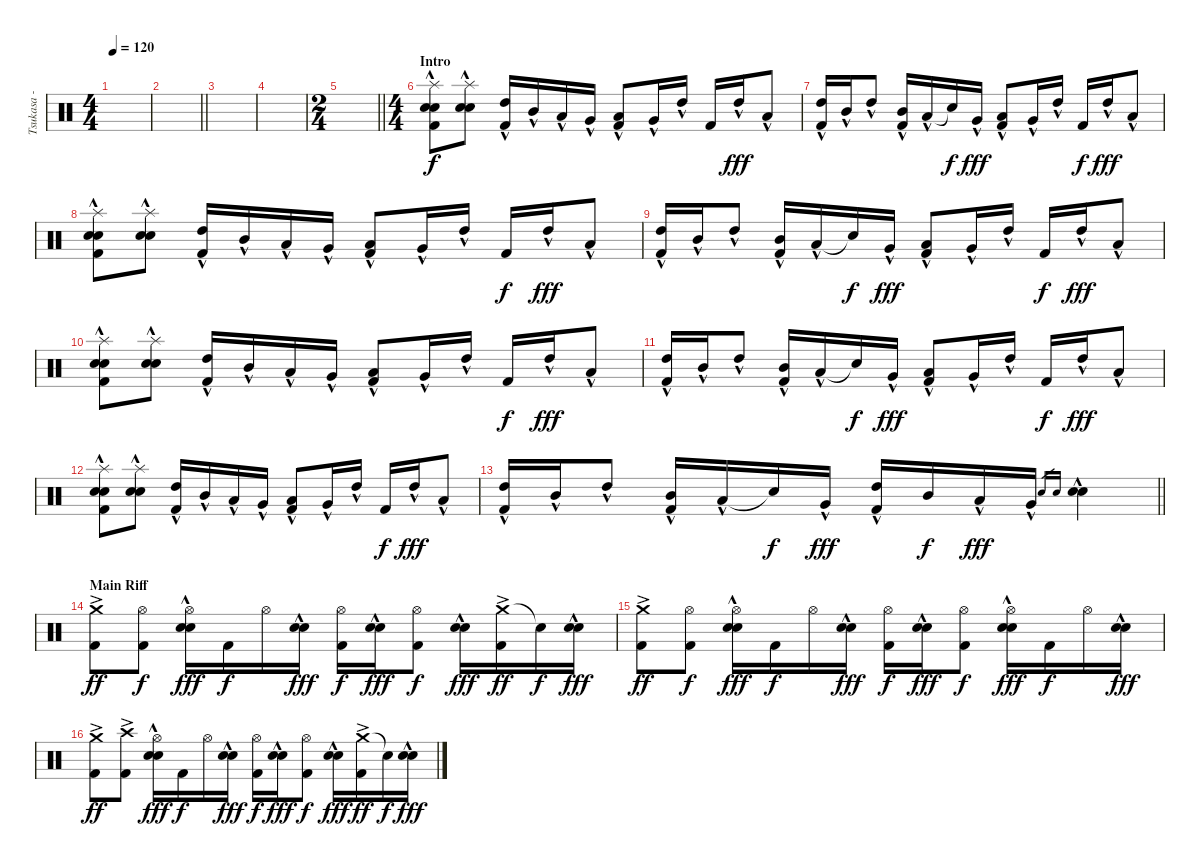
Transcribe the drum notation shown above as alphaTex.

\track ("Tsukasa - Drums" "Tsukasa - ") {instrument percussion}
\staff {score}
\articulation defaults
\ts (4 4)
\tempo 120
\clef neutral
\ks c
|
\barLineRight lightlight
|
\section ("" "")
|
|
\ts (2 4)
\barLineRight lightlight
|
\ts (4 4)
\section ("" "Intro")
("Splash (hit)"{hac} "Electric Snare (hit)"{hac} "Snare (hit) 2"{hac} "Kick (hit) 2").8 ("Splash (hit)"{hac} "Electric Snare (hit)" "Snare (hit) 2").8 ("High Tom (hit)"{hac} "Kick (hit) 2").16 "Mid Tom (hit)"{hac}.16 "Low Tom (hit)"{hac}.16 "Very Low Tom (hit)"{hac}.16 ("Low Tom (hit)"{hac} "Kick (hit) 2").8 "Very Low Tom (hit)"{hac}.16 "High Tom (hit)"{hac}.16 "Kick (hit) 2".16{dy f} "High Tom (hit)"{hac}.16{dy fff} "Low Tom (hit)"{hac}.8 |
("High Tom (hit)"{hac} "Kick (hit) 2").16 "Mid Tom (hit)"{hac}.16 "High Tom (hit)"{hac}.8 ("Mid Tom (hit)"{hac} "Kick (hit) 2").16 "Low Tom (hit)"{hac}.16 "Snare (hit)"{t}.16{dy f} "Very Low Tom (hit)"{hac}.16{dy fff} ("Low Tom (hit)"{hac} "Kick (hit) 2").8 "Very Low Tom (hit)"{hac}.16 "High Tom (hit)"{hac}.16 "Kick (hit) 2".16{dy f} "High Tom (hit)"{hac}.16{dy fff} "Low Tom (hit)"{hac}.8 |
("Splash (hit)"{hac} "Electric Snare (hit)"{hac} "Snare (hit) 2"{hac} "Kick (hit) 2").8 ("Splash (hit)"{hac} "Electric Snare (hit)" "Snare (hit) 2").8 ("High Tom (hit)"{hac} "Kick (hit) 2").16 "Mid Tom (hit)"{hac}.16 "Low Tom (hit)"{hac}.16 "Very Low Tom (hit)"{hac}.16 ("Low Tom (hit)"{hac} "Kick (hit) 2").8 "Very Low Tom (hit)"{hac}.16 "High Tom (hit)"{hac}.16 "Kick (hit) 2".16{dy f} "High Tom (hit)"{hac}.16{dy fff} "Low Tom (hit)"{hac}.8 |
("High Tom (hit)"{hac} "Kick (hit) 2").16 "Mid Tom (hit)"{hac}.16 "High Tom (hit)"{hac}.8 ("Mid Tom (hit)"{hac} "Kick (hit) 2").16 "Low Tom (hit)"{hac}.16 "Snare (hit)"{t}.16{dy f} "Very Low Tom (hit)"{hac}.16{dy fff} ("Low Tom (hit)"{hac} "Kick (hit) 2").8 "Very Low Tom (hit)"{hac}.16 "High Tom (hit)"{hac}.16 "Kick (hit) 2".16{dy f} "High Tom (hit)"{hac}.16{dy fff} "Low Tom (hit)"{hac}.8 |
("Splash (hit)"{hac} "Electric Snare (hit)"{hac} "Snare (hit) 2"{hac} "Kick (hit) 2").8 ("Splash (hit)"{hac} "Electric Snare (hit)" "Snare (hit) 2").8 ("High Tom (hit)"{hac} "Kick (hit) 2").16 "Mid Tom (hit)"{hac}.16 "Low Tom (hit)"{hac}.16 "Very Low Tom (hit)"{hac}.16 ("Low Tom (hit)"{hac} "Kick (hit) 2").8 "Very Low Tom (hit)"{hac}.16 "High Tom (hit)"{hac}.16 "Kick (hit) 2".16{dy f} "High Tom (hit)"{hac}.16{dy fff} "Low Tom (hit)"{hac}.8 |
("High Tom (hit)"{hac} "Kick (hit) 2").16 "Mid Tom (hit)"{hac}.16 "High Tom (hit)"{hac}.8 ("Mid Tom (hit)"{hac} "Kick (hit) 2").16 "Low Tom (hit)"{hac}.16 "Snare (hit)"{t}.16{dy f} "Very Low Tom (hit)"{hac}.16{dy fff} ("Low Tom (hit)"{hac} "Kick (hit) 2").8 "Very Low Tom (hit)"{hac}.16 "High Tom (hit)"{hac}.16 "Kick (hit) 2".16{dy f} "High Tom (hit)"{hac}.16{dy fff} "Low Tom (hit)"{hac}.8 |
("Splash (hit)"{hac} "Electric Snare (hit)"{hac} "Snare (hit) 2"{hac} "Kick (hit) 2").8 ("Splash (hit)"{hac} "Electric Snare (hit)" "Snare (hit) 2").8 ("High Tom (hit)"{hac} "Kick (hit) 2").16 "Mid Tom (hit)"{hac}.16 "Low Tom (hit)"{hac}.16 "Very Low Tom (hit)"{hac}.16 ("Low Tom (hit)"{hac} "Kick (hit) 2").8 "Very Low Tom (hit)"{hac}.16 "High Tom (hit)"{hac}.16 "Kick (hit) 2".16{dy f} "High Tom (hit)"{hac}.16{dy fff} "Low Tom (hit)"{hac}.8 |
\barLineRight lightlight
("High Tom (hit)"{hac} "Kick (hit) 2").16 "Mid Tom (hit)"{hac}.16 "High Tom (hit)"{hac}.8 ("Mid Tom (hit)"{hac} "Kick (hit) 2").16 "Low Tom (hit)"{hac}.16 "Snare (hit)"{t}.16{dy f} "Very Low Tom (hit)"{hac}.16{dy fff} ("High Tom (hit)"{hac} "Kick (hit) 2").16 "Mid Tom (hit)".16{dy f} "Low Tom (hit)"{hac}.16{dy fff} "Very Low Tom (hit)"{hac}.16 "Electric Snare (hit)".16{gr} "Snare (hit) 2".16{gr} ("Electric Snare (hit)"{hac} "Snare (hit) 2"{hac}).4 |
\section ("" "Main Riff")
("Crash medium (hit)"{ac} "Kick (hit) 2").8{dy ff} ("Hi-Hat (open)" "Kick (hit) 2").8{dy f} ("Hi-Hat (open)" "Electric Snare (hit)"{hac} "Snare (hit) 2"{hac}).16{dy fff} "Kick (hit) 2".16{dy f} "Hi-Hat (open)".16 ("Electric Snare (hit)"{hac} "Snare (hit) 2"{hac}).16{dy fff} ("Hi-Hat (open)" "Kick (hit) 2").16{dy f} ("Electric Snare (hit)"{hac} "Snare (hit) 2"{hac}).16{dy fff} ("Hi-Hat (open)" "Kick (hit) 2").8{dy f} ("Electric Snare (hit)"{hac} "Snare (hit) 2"{hac}).16{dy fff} ("Crash medium (hit)"{ac} "Kick (hit) 2").16{dy ff} "Snare (hit)"{t}.16{dy f} ("Electric Snare (hit)"{hac} "Snare (hit) 2"{hac}).16{dy fff} |
("Crash medium (hit)"{ac} "Kick (hit) 2").8{dy ff} ("Hi-Hat (open)" "Kick (hit) 2").8{dy f} ("Hi-Hat (open)" "Electric Snare (hit)"{hac} "Snare (hit) 2"{hac}).16{dy fff} "Kick (hit) 2".16{dy f} "Hi-Hat (open)".16 ("Electric Snare (hit)"{hac} "Snare (hit) 2"{hac}).16{dy fff} ("Hi-Hat (open)" "Kick (hit) 2").16{dy f} ("Electric Snare (hit)"{hac} "Snare (hit) 2"{hac}).16{dy fff} ("Hi-Hat (open)" "Kick (hit) 2").8{dy f} ("Hi-Hat (open)" "Electric Snare (hit)"{hac} "Snare (hit) 2"{hac}).16{dy fff} "Kick (hit) 2".16{dy f} "Hi-Hat (open)".16 ("Electric Snare (hit)"{hac} "Snare (hit) 2"{hac}).16{dy fff} |
("Crash medium (hit)"{ac} "Kick (hit) 2").8{dy ff} ("Crash high (hit)"{ac} "Kick (hit) 2").8 ("Hi-Hat (open)" "Electric Snare (hit)"{hac} "Snare (hit) 2"{hac}).16{dy fff} "Kick (hit) 2".16{dy f} "Hi-Hat (open)".16 ("Electric Snare (hit)"{hac} "Snare (hit) 2"{hac}).16{dy fff} ("Hi-Hat (open)" "Kick (hit) 2").16{dy f} ("Electric Snare (hit)"{hac} "Snare (hit) 2"{hac}).16{dy fff} ("Hi-Hat (open)" "Kick (hit) 2").8{dy f} ("Electric Snare (hit)"{hac} "Snare (hit) 2"{hac}).16{dy fff} ("Crash medium (hit)"{ac} "Kick (hit) 2").16{dy ff} "Snare (hit)"{t}.16{dy f} ("Electric Snare (hit)"{hac} "Snare (hit) 2"{hac}).16{dy fff}
